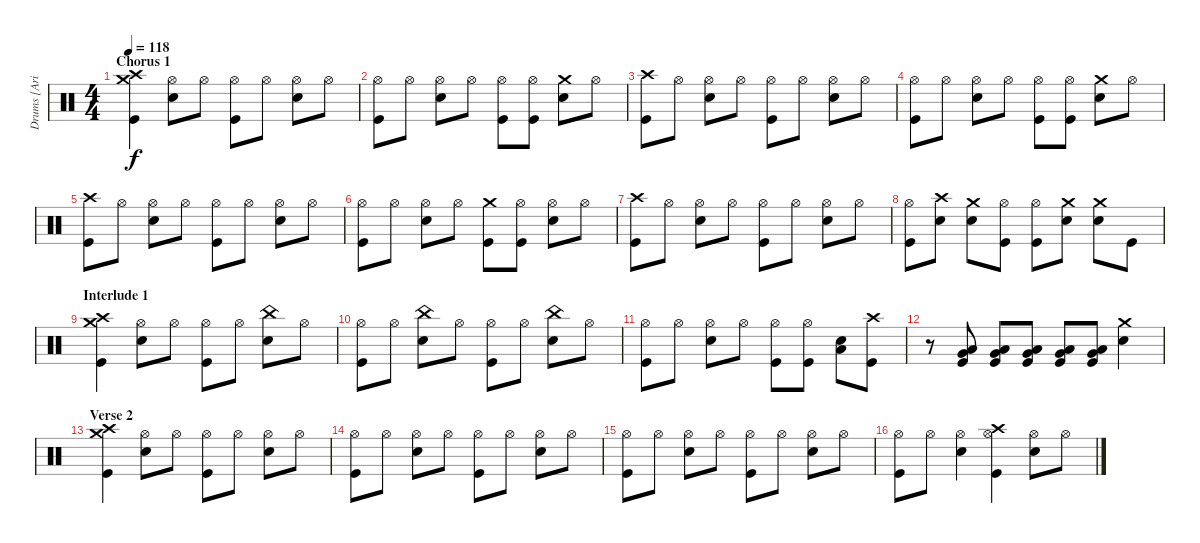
\track ("Drums [Arin Ilejay]" "Drums [Ari") {instrument percussion}
\staff {score}
\articulation defaults
\ts (4 4)
\section ("" "Chorus 1")
\tempo 118
\clef neutral
\ks c
("Crash high (hit)" "Crash medium (hit)" "Kick (hit)").4{dy f} ("Hi-Hat (open)" "Snare (hit) 2").8 "Hi-Hat (open)".8 ("Hi-Hat (open)" "Kick (hit)").8 "Hi-Hat (open)".8 ("Hi-Hat (open)" "Snare (hit) 2").8 "Hi-Hat (open)".8 |
("Hi-Hat (open)" "Kick (hit)").8 "Hi-Hat (open)".8 ("Hi-Hat (open)" "Snare (hit) 2").8 "Hi-Hat (open)".8 ("Hi-Hat (open)" "Kick (hit)").8 ("Hi-Hat (open)" "Kick (hit)").8 ("Crash medium (hit)" "Snare (hit) 2").8 "Hi-Hat (open)".8 |
("Crash high (hit)" "Kick (hit)").8 "Hi-Hat (open)".8 ("Hi-Hat (open)" "Snare (hit) 2").8 "Hi-Hat (open)".8 ("Hi-Hat (open)" "Kick (hit)").8 "Hi-Hat (open)".8 ("Hi-Hat (open)" "Snare (hit) 2").8 "Hi-Hat (open)".8 |
("Hi-Hat (open)" "Kick (hit)").8 "Hi-Hat (open)".8 ("Hi-Hat (open)" "Snare (hit) 2").8 "Hi-Hat (open)".8 ("Hi-Hat (open)" "Kick (hit)").8 ("Hi-Hat (open)" "Kick (hit)").8 ("Crash medium (hit)" "Snare (hit) 2").8 "Hi-Hat (open)".8 |
("Crash high (hit)" "Kick (hit)").8 "Hi-Hat (open)".8 ("Hi-Hat (open)" "Snare (hit) 2").8 "Hi-Hat (open)".8 ("Hi-Hat (open)" "Kick (hit)").8 "Hi-Hat (open)".8 ("Hi-Hat (open)" "Snare (hit) 2").8 "Hi-Hat (open)".8 |
("Hi-Hat (open)" "Kick (hit)").8 "Hi-Hat (open)".8 ("Hi-Hat (open)" "Snare (hit) 2").8 "Hi-Hat (open)".8 ("Crash medium (hit)" "Kick (hit)").8 ("Hi-Hat (open)" "Kick (hit)").8 ("Hi-Hat (open)" "Snare (hit) 2").8 "Hi-Hat (open)".8 |
("Crash high (hit)" "Kick (hit)").8 "Hi-Hat (open)".8 ("Hi-Hat (open)" "Snare (hit) 2").8 "Hi-Hat (open)".8 ("Hi-Hat (open)" "Kick (hit)").8 "Hi-Hat (open)".8 ("Hi-Hat (open)" "Snare (hit) 2").8 "Hi-Hat (open)".8 |
("Hi-Hat (open)" "Kick (hit)").8 ("Crash high (hit)" "Snare (hit) 2").8 ("Crash medium (hit)" "Snare (hit) 2").8 ("Hi-Hat (open)" "Kick (hit)").8 ("Hi-Hat (open)" "Kick (hit)").8 ("Crash medium (hit)" "Snare (hit) 2").8 ("Crash medium (hit)" "Snare (hit) 2").8 "Kick (hit)".8 |
\section ("" "Interlude 1")
("Crash high (hit)" "Crash medium (hit)" "Kick (hit)").4 ("Hi-Hat (open)" "Snare (hit) 2").8 "Hi-Hat (open)".8 ("Hi-Hat (open)" "Kick (hit)").8 "Hi-Hat (open)".8 ("China (hit)" "Snare (hit) 2").8 "Hi-Hat (open)".8 |
("Hi-Hat (open)" "Kick (hit)").8 "Hi-Hat (open)".8 ("China (hit)" "Snare (hit) 2").8 "Hi-Hat (open)".8 ("Hi-Hat (open)" "Kick (hit)").8 "Hi-Hat (open)".8 ("China (hit)" "Snare (hit) 2").8 "Hi-Hat (open)".8 |
("Hi-Hat (open)" "Kick (hit)").8 "Hi-Hat (open)".8 ("Hi-Hat (open)" "Snare (hit) 2").8 "Hi-Hat (open)".8 ("Hi-Hat (open)" "Kick (hit)").8 ("Hi-Hat (open)" "Kick (hit)").8 ("Low Floor Tom (hit)" "Snare (hit) 2").8 ("Crash high (hit)" "Kick (hit)").8 |
r.8 ("Low Tom (hit)" "Very Low Tom (hit)" "Kick (hit)").8 ("Low Tom (hit)" "Very Low Tom (hit)" "Kick (hit)").8 ("Low Tom (hit)" "Very Low Tom (hit)" "Kick (hit)").8 ("Low Tom (hit)" "Very Low Tom (hit)" "Kick (hit)").8 ("Low Tom (hit)" "Very Low Tom (hit)" "Kick (hit)").8 ("Crash medium (hit)" "Snare (hit) 2").4 |
\section ("" "Verse 2")
("Crash high (hit)" "Crash medium (hit)" "Kick (hit)").4 ("Hi-Hat (open)" "Snare (hit) 2").8 "Hi-Hat (open)".8 ("Hi-Hat (open)" "Kick (hit)").8 "Hi-Hat (open)".8 ("Hi-Hat (open)" "Snare (hit) 2").8 "Hi-Hat (open)".8 |
("Hi-Hat (open)" "Kick (hit)").8 "Hi-Hat (open)".8 ("Hi-Hat (open)" "Snare (hit) 2").8 "Hi-Hat (open)".8 ("Hi-Hat (open)" "Kick (hit)").8 "Hi-Hat (open)".8 ("Hi-Hat (open)" "Snare (hit) 2").8 "Hi-Hat (open)".8 |
("Hi-Hat (open)" "Kick (hit)").8 "Hi-Hat (open)".8 ("Hi-Hat (open)" "Snare (hit) 2").8 "Hi-Hat (open)".8 ("Hi-Hat (open)" "Kick (hit)").8 "Hi-Hat (open)".8 ("Hi-Hat (open)" "Snare (hit) 2").8 "Hi-Hat (open)".8 |
("Hi-Hat (open)" "Kick (hit)").8 "Hi-Hat (open)".8 ("Hi-Hat (open)" "Snare (hit) 2").4 ("Crash high (hit)" "Hi-Hat (open)" "Kick (hit)").4 ("Hi-Hat (open)" "Snare (hit) 2").8 "Hi-Hat (open)".8
